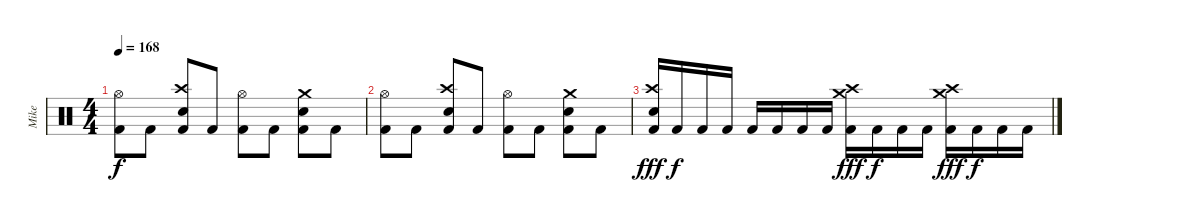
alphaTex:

\track ("Mike" "Mike") {instrument percussion}
\staff {score}
\articulation defaults
\ts (4 4)
\tempo 168
\clef neutral
\ks c
("Hi-Hat (open)" "Kick (hit) 2").8{dy f} "Kick (hit) 2".8 ("Crash high (hit)" "Snare (hit) 2" "Kick (hit) 2").8 "Kick (hit) 2".8 ("Hi-Hat (open)" "Kick (hit) 2").8 "Kick (hit) 2".8{volume 2} ("Crash medium (hit)" "Snare (hit) 2" "Kick (hit) 2").8 "Kick (hit) 2".8 |
("Hi-Hat (open)" "Kick (hit) 2").8 "Kick (hit) 2".8 ("Crash high (hit)" "Snare (hit) 2" "Kick (hit) 2").8 "Kick (hit) 2".8 ("Hi-Hat (open)" "Kick (hit) 2").8 "Kick (hit) 2".8 ("Crash medium (hit)" "Snare (hit) 2" "Kick (hit) 2").8 "Kick (hit) 2".8 |
("Crash high (hit)" "Snare (hit) 2" "Kick (hit) 2").16{dy fff volume 0} "Kick (hit) 2".16{dy f} "Kick (hit) 2".16 "Kick (hit) 2".16 "Kick (hit) 2".16 "Kick (hit) 2".16 "Kick (hit) 2".16 "Kick (hit) 2".16 ("Crash medium (hit)" "Crash high (hit)" "Kick (hit) 2").16{dy fff} "Kick (hit) 2".16{dy f} "Kick (hit) 2".16 "Kick (hit) 2".16 ("Crash high (hit)" "Crash medium (hit)" "Kick (hit) 2").16{dy fff} "Kick (hit) 2".16{dy f} "Kick (hit) 2".16 "Kick (hit) 2".16
